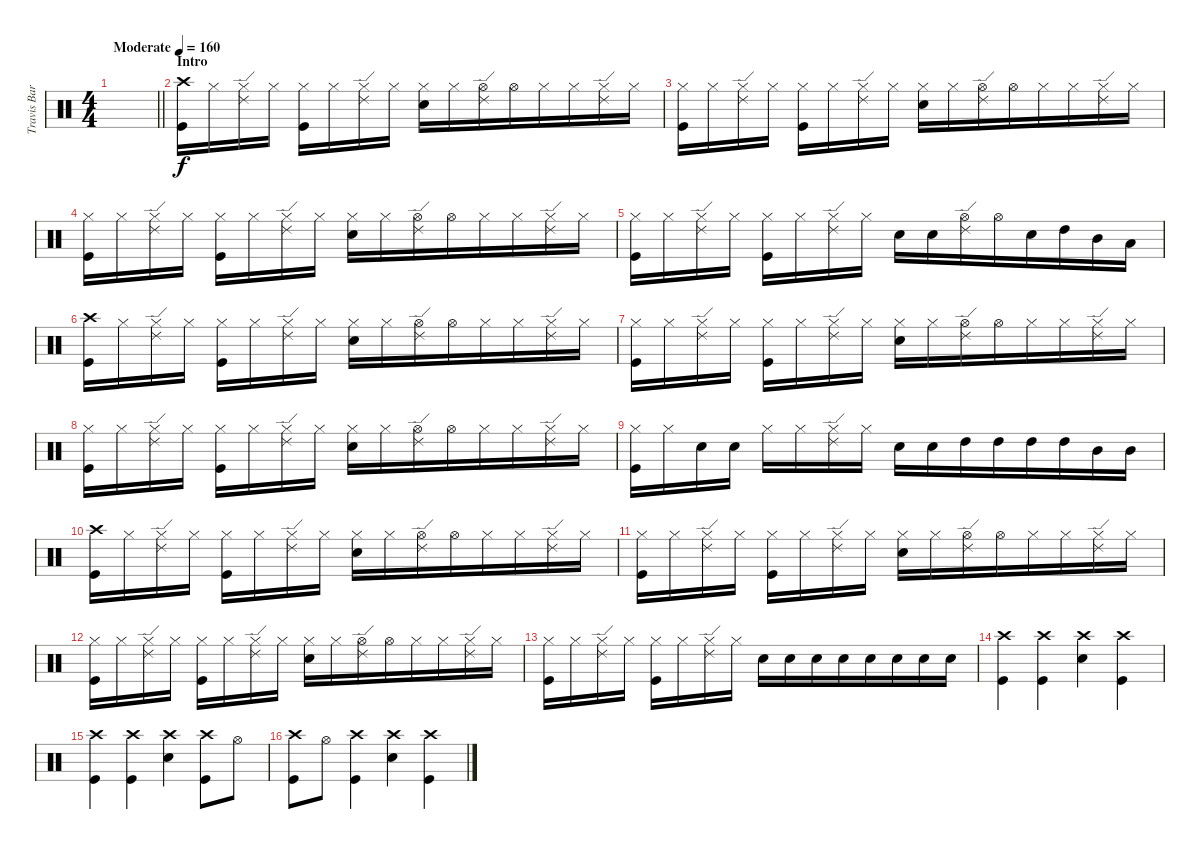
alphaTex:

\track ("Travis Barker Drums" "Travis Bar") {instrument percussion}
\staff {score}
\articulation defaults
\ts (4 4)
\tempo (160 "Moderate")
\clef neutral
\barLineRight lightlight
\ks c
|
\section ("" "Intro")
("Crash high (hit)" "Kick (hit)").16 "Hi-Hat (closed)".16 ("Hi-Hat (closed)" "Ride (edge) 2").16 "Hi-Hat (closed)".16 ("Hi-Hat (closed)" "Kick (hit)").16 "Hi-Hat (closed)".16 ("Hi-Hat (closed)" "Ride (edge) 2").16{beam merge} "Hi-Hat (closed)".16 ("Hi-Hat (closed)" "Snare (hit) 2").16{beam merge} "Hi-Hat (closed)".16{beam merge} ("Hi-Hat (open)" "Ride (edge) 2").16 "Hi-Hat (open)".16{beam merge} "Hi-Hat (closed)".16{beam merge} "Hi-Hat (closed)".16{beam merge} ("Hi-Hat (closed)" "Ride (edge) 2").16 "Hi-Hat (closed)".16 |
("Hi-Hat (closed)" "Kick (hit)").16 "Hi-Hat (closed)".16 ("Hi-Hat (closed)" "Ride (edge) 2").16 "Hi-Hat (closed)".16 ("Hi-Hat (closed)" "Kick (hit)").16 "Hi-Hat (closed)".16 ("Hi-Hat (closed)" "Ride (edge) 2").16{beam merge} "Hi-Hat (closed)".16 ("Hi-Hat (closed)" "Snare (hit) 2").16{beam merge} "Hi-Hat (closed)".16{beam merge} ("Hi-Hat (open)" "Ride (edge) 2").16 "Hi-Hat (open)".16{beam merge} "Hi-Hat (closed)".16{beam merge} "Hi-Hat (closed)".16{beam merge} ("Hi-Hat (closed)" "Ride (edge) 2").16 "Hi-Hat (closed)".16 |
("Hi-Hat (closed)" "Kick (hit)").16 "Hi-Hat (closed)".16 ("Hi-Hat (closed)" "Ride (edge) 2").16 "Hi-Hat (closed)".16 ("Hi-Hat (closed)" "Kick (hit)").16 "Hi-Hat (closed)".16 ("Hi-Hat (closed)" "Ride (edge) 2").16{beam merge} "Hi-Hat (closed)".16 ("Hi-Hat (closed)" "Snare (hit) 2").16{beam merge} "Hi-Hat (closed)".16{beam merge} ("Hi-Hat (open)" "Ride (edge) 2").16 "Hi-Hat (open)".16{beam merge} "Hi-Hat (closed)".16{beam merge} "Hi-Hat (closed)".16{beam merge} ("Hi-Hat (closed)" "Ride (edge) 2").16 "Hi-Hat (closed)".16 |
("Hi-Hat (closed)" "Kick (hit)").16 "Hi-Hat (closed)".16 ("Hi-Hat (closed)" "Ride (edge) 2").16 "Hi-Hat (closed)".16 ("Hi-Hat (closed)" "Kick (hit)").16 "Hi-Hat (closed)".16 ("Hi-Hat (closed)" "Ride (edge) 2").16{beam merge} "Hi-Hat (closed)".16 "Snare (hit) 2".16{beam merge} "Snare (hit) 2".16{beam merge} ("Hi-Hat (open)" "Ride (edge) 2").16 "Hi-Hat (open)".16{beam merge} "Snare (hit) 2".16{beam merge} "High Tom (hit)".16{beam merge} "Mid Tom (hit)".16 "Low Tom (hit)".16 |
("Crash high (hit)" "Kick (hit)").16 "Hi-Hat (closed)".16 ("Hi-Hat (closed)" "Ride (edge) 2").16 "Hi-Hat (closed)".16 ("Hi-Hat (closed)" "Kick (hit)").16 "Hi-Hat (closed)".16 ("Hi-Hat (closed)" "Ride (edge) 2").16{beam merge} "Hi-Hat (closed)".16 ("Hi-Hat (closed)" "Snare (hit) 2").16{beam merge} "Hi-Hat (closed)".16{beam merge} ("Hi-Hat (open)" "Ride (edge) 2").16 "Hi-Hat (open)".16{beam merge} "Hi-Hat (closed)".16{beam merge} "Hi-Hat (closed)".16{beam merge} ("Hi-Hat (closed)" "Ride (edge) 2").16 "Hi-Hat (closed)".16 |
("Hi-Hat (closed)" "Kick (hit)").16 "Hi-Hat (closed)".16 ("Hi-Hat (closed)" "Ride (edge) 2").16 "Hi-Hat (closed)".16 ("Hi-Hat (closed)" "Kick (hit)").16 "Hi-Hat (closed)".16 ("Hi-Hat (closed)" "Ride (edge) 2").16{beam merge} "Hi-Hat (closed)".16 ("Hi-Hat (closed)" "Snare (hit) 2").16{beam merge} "Hi-Hat (closed)".16{beam merge} ("Hi-Hat (open)" "Ride (edge) 2").16 "Hi-Hat (open)".16{beam merge} "Hi-Hat (closed)".16{beam merge} "Hi-Hat (closed)".16{beam merge} ("Hi-Hat (closed)" "Ride (edge) 2").16 "Hi-Hat (closed)".16 |
("Hi-Hat (closed)" "Kick (hit)").16 "Hi-Hat (closed)".16 ("Hi-Hat (closed)" "Ride (edge) 2").16 "Hi-Hat (closed)".16 ("Hi-Hat (closed)" "Kick (hit)").16 "Hi-Hat (closed)".16 ("Hi-Hat (closed)" "Ride (edge) 2").16{beam merge} "Hi-Hat (closed)".16 ("Hi-Hat (closed)" "Snare (hit) 2").16{beam merge} "Hi-Hat (closed)".16{beam merge} ("Hi-Hat (open)" "Ride (edge) 2").16 "Hi-Hat (open)".16{beam merge} "Hi-Hat (closed)".16{beam merge} "Hi-Hat (closed)".16{beam merge} ("Hi-Hat (closed)" "Ride (edge) 2").16 "Hi-Hat (closed)".16 |
("Hi-Hat (closed)" "Kick (hit)").16 "Hi-Hat (closed)".16 "Snare (hit) 2".16 "Snare (hit) 2".16 "Hi-Hat (closed)".16 "Hi-Hat (closed)".16 ("Hi-Hat (closed)" "Ride (edge) 2").16{beam merge} "Hi-Hat (closed)".16 "Snare (hit) 2".16{beam merge} "Snare (hit) 2".16{beam merge} "High Tom (hit)".16 "High Tom (hit)".16{beam merge} "High Tom (hit)".16{beam merge} "High Tom (hit)".16{beam merge} "Mid Tom (hit)".16 "Mid Tom (hit)".16 |
("Crash high (hit)" "Kick (hit)").16 "Hi-Hat (closed)".16 ("Hi-Hat (closed)" "Ride (edge) 2").16 "Hi-Hat (closed)".16 ("Hi-Hat (closed)" "Kick (hit)").16 "Hi-Hat (closed)".16 ("Hi-Hat (closed)" "Ride (edge) 2").16{beam merge} "Hi-Hat (closed)".16 ("Hi-Hat (closed)" "Snare (hit) 2").16{beam merge} "Hi-Hat (closed)".16{beam merge} ("Hi-Hat (open)" "Ride (edge) 2").16 "Hi-Hat (open)".16{beam merge} "Hi-Hat (closed)".16{beam merge} "Hi-Hat (closed)".16{beam merge} ("Hi-Hat (closed)" "Ride (edge) 2").16 "Hi-Hat (closed)".16 |
("Hi-Hat (closed)" "Kick (hit)").16 "Hi-Hat (closed)".16 ("Hi-Hat (closed)" "Ride (edge) 2").16 "Hi-Hat (closed)".16 ("Hi-Hat (closed)" "Kick (hit)").16 "Hi-Hat (closed)".16 ("Hi-Hat (closed)" "Ride (edge) 2").16{beam merge} "Hi-Hat (closed)".16 ("Hi-Hat (closed)" "Snare (hit) 2").16{beam merge} "Hi-Hat (closed)".16{beam merge} ("Hi-Hat (open)" "Ride (edge) 2").16 "Hi-Hat (open)".16{beam merge} "Hi-Hat (closed)".16{beam merge} "Hi-Hat (closed)".16{beam merge} ("Hi-Hat (closed)" "Ride (edge) 2").16 "Hi-Hat (closed)".16 |
("Hi-Hat (closed)" "Kick (hit)").16 "Hi-Hat (closed)".16 ("Hi-Hat (closed)" "Ride (edge) 2").16 "Hi-Hat (closed)".16 ("Hi-Hat (closed)" "Kick (hit)").16 "Hi-Hat (closed)".16 ("Hi-Hat (closed)" "Ride (edge) 2").16{beam merge} "Hi-Hat (closed)".16 ("Hi-Hat (closed)" "Snare (hit) 2").16{beam merge} "Hi-Hat (closed)".16{beam merge} ("Hi-Hat (open)" "Ride (edge) 2").16 "Hi-Hat (open)".16{beam merge} "Hi-Hat (closed)".16{beam merge} "Hi-Hat (closed)".16{beam merge} ("Hi-Hat (closed)" "Ride (edge) 2").16 "Hi-Hat (closed)".16 |
("Hi-Hat (closed)" "Kick (hit)").16 "Hi-Hat (closed)".16 ("Hi-Hat (closed)" "Ride (edge) 2").16 "Hi-Hat (closed)".16 ("Hi-Hat (closed)" "Kick (hit)").16 "Hi-Hat (closed)".16 ("Hi-Hat (closed)" "Ride (edge) 2").16{beam merge} "Hi-Hat (closed)".16 "Snare (hit) 2".16{beam merge} "Snare (hit) 2".16{beam merge} "Snare (hit) 2".16 "Snare (hit) 2".16{beam merge} "Snare (hit) 2".16{beam merge} "Snare (hit) 2".16{beam merge} "Snare (hit) 2".16 "Snare (hit) 2".16 |
("Crash high (hit)" "Kick (hit)").4{beam merge} ("Crash high (hit)" "Kick (hit)").4 ("Crash high (hit)" "Snare (hit) 2").4 ("Crash high (hit)" "Kick (hit)").4 |
("Crash high (hit)" "Kick (hit)").4{beam merge} ("Crash high (hit)" "Kick (hit)").4 ("Crash high (hit)" "Snare (hit) 2").4 ("Crash high (hit)" "Kick (hit)").8 "Hi-Hat (open)".8 |
("Crash high (hit)" "Kick (hit)").8{beam merge} "Hi-Hat (open)".8 ("Crash high (hit)" "Kick (hit)").4 ("Crash high (hit)" "Snare (hit) 2").4 ("Crash high (hit)" "Kick (hit)").4
